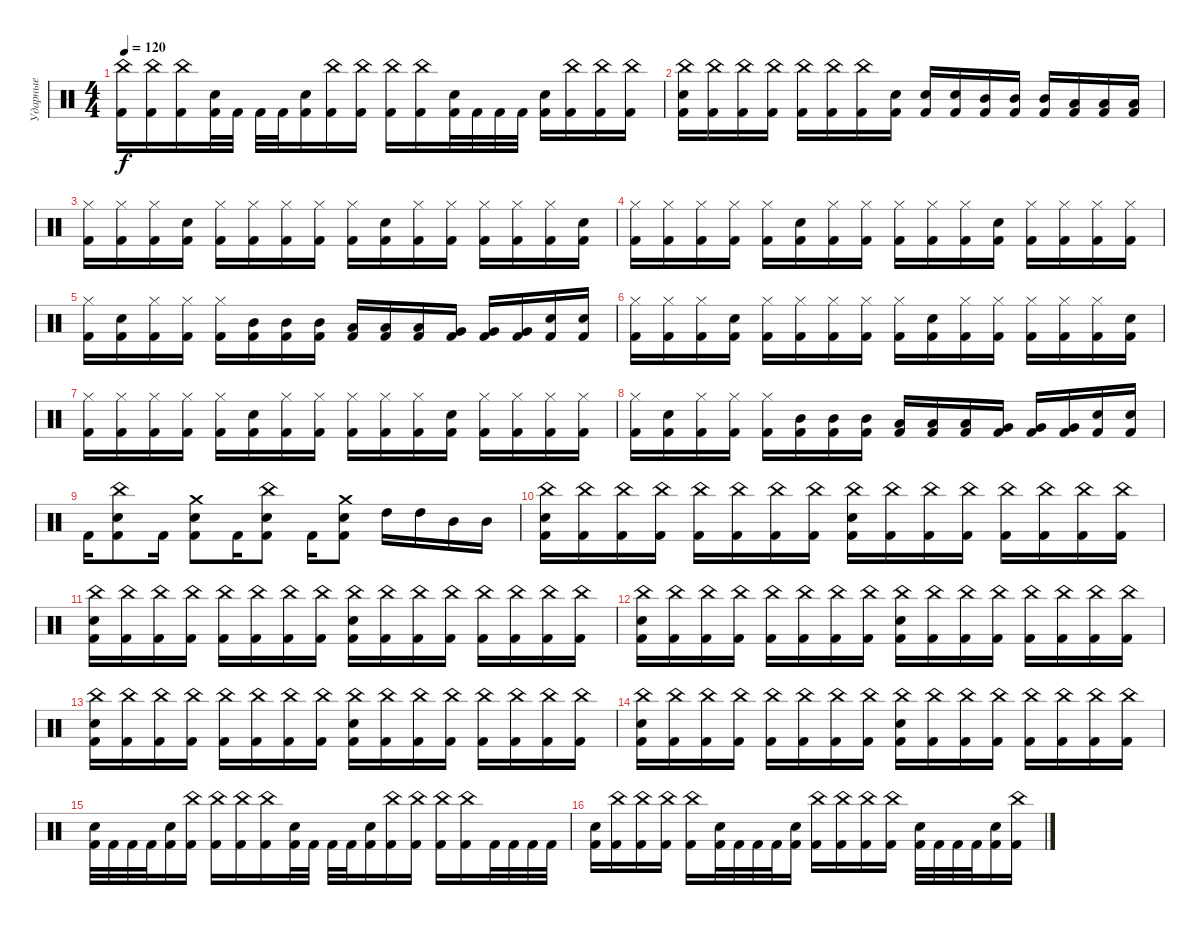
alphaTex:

\track ("Ударные" "Ударные") {instrument percussion}
\staff {score}
\articulation defaults
\ts (4 4)
\tempo 120
\clef neutral
\ks c
("China (hit)" "Kick (hit) 2").16{dy f} ("China (hit)" "Kick (hit) 2").16 ("China (hit)" "Kick (hit) 2").16 ("Snare (hit) 2" "Kick (hit) 2").32 "Kick (hit) 2".32 "Kick (hit) 2".32 "Kick (hit) 2".32 ("Snare (hit) 2" "Kick (hit) 2").16 ("China (hit)" "Kick (hit) 2").16 ("China (hit)" "Kick (hit) 2").16 ("China (hit)" "Kick (hit) 2").16 ("China (hit)" "Kick (hit) 2").16 ("Snare (hit) 2" "Kick (hit) 2").32 "Kick (hit) 2".32 "Kick (hit) 2".32 "Kick (hit) 2".32 ("Snare (hit) 2" "Kick (hit) 2").16 ("China (hit)" "Kick (hit) 2").16 ("China (hit)" "Kick (hit) 2").16 ("China (hit)" "Kick (hit) 2").16 |
("China (hit)" "Snare (hit) 2" "Kick (hit) 2").16 ("China (hit)" "Kick (hit) 2").16 ("China (hit)" "Kick (hit) 2").16 ("China (hit)" "Kick (hit) 2").16 ("China (hit)" "Kick (hit) 2").16 ("China (hit)" "Kick (hit) 2").16 ("China (hit)" "Kick (hit) 2").16 ("Snare (hit) 2" "Kick (hit) 2").16 ("Snare (hit) 2" "Kick (hit) 2").16 ("Snare (hit) 2" "Kick (hit) 2").16 ("Mid Tom (hit)" "Kick (hit) 2").16 ("Mid Tom (hit)" "Kick (hit) 2").16 ("Mid Tom (hit)" "Kick (hit) 2").16 ("Low Tom (hit)" "Kick (hit) 2").16 ("Low Tom (hit)" "Kick (hit) 2").16 ("Low Tom (hit)" "Kick (hit) 2").16 |
("Hi-Hat (closed)" "Kick (hit) 2").16 ("Hi-Hat (closed)" "Kick (hit) 2").16 ("Hi-Hat (closed)" "Kick (hit) 2").16 ("Snare (hit) 2" "Kick (hit) 2").16 ("Hi-Hat (closed)" "Kick (hit) 2").16 ("Hi-Hat (closed)" "Kick (hit) 2").16 ("Hi-Hat (closed)" "Kick (hit) 2").16 ("Hi-Hat (closed)" "Kick (hit) 2").16 ("Hi-Hat (closed)" "Kick (hit) 2").16 ("Snare (hit) 2" "Kick (hit) 2").16 ("Hi-Hat (closed)" "Kick (hit) 2").16 ("Hi-Hat (closed)" "Kick (hit) 2").16 ("Hi-Hat (closed)" "Kick (hit) 2").16 ("Hi-Hat (closed)" "Kick (hit) 2").16 ("Hi-Hat (closed)" "Kick (hit) 2").16 ("Snare (hit) 2" "Kick (hit) 2").16 |
("Hi-Hat (closed)" "Kick (hit) 2").16 ("Hi-Hat (closed)" "Kick (hit) 2").16 ("Hi-Hat (closed)" "Kick (hit) 2").16 ("Hi-Hat (closed)" "Kick (hit) 2").16 ("Hi-Hat (closed)" "Kick (hit) 2").16 ("Snare (hit) 2" "Kick (hit) 2").16 ("Hi-Hat (closed)" "Kick (hit) 2").16 ("Hi-Hat (closed)" "Kick (hit) 2").16 ("Hi-Hat (closed)" "Kick (hit) 2").16 ("Hi-Hat (closed)" "Kick (hit) 2").16 ("Hi-Hat (closed)" "Kick (hit) 2").16 ("Snare (hit) 2" "Kick (hit) 2").16 ("Hi-Hat (closed)" "Kick (hit) 2").16 ("Hi-Hat (closed)" "Kick (hit) 2").16 ("Hi-Hat (closed)" "Kick (hit) 2").16 ("Hi-Hat (closed)" "Kick (hit) 2").16 |
("Hi-Hat (closed)" "Kick (hit) 2").16 ("Snare (hit) 2" "Kick (hit) 2").16 ("Hi-Hat (closed)" "Kick (hit) 2").16 ("Hi-Hat (closed)" "Kick (hit) 2").16 ("Hi-Hat (closed)" "Kick (hit) 2").16 ("Mid Tom (hit)" "Kick (hit) 2").16 ("Mid Tom (hit)" "Kick (hit) 2").16 ("Mid Tom (hit)" "Kick (hit) 2").16 ("Low Tom (hit)" "Kick (hit) 2").16 ("Low Tom (hit)" "Kick (hit) 2").16 ("Low Tom (hit)" "Kick (hit) 2").16 ("Very Low Tom (hit)" "Kick (hit) 2").16 ("Very Low Tom (hit)" "Kick (hit) 2").16 ("Very Low Tom (hit)" "Kick (hit) 2").16 ("Snare (hit) 2" "Kick (hit) 2").16 ("Snare (hit) 2" "Kick (hit) 2").16 |
("Hi-Hat (closed)" "Kick (hit) 2").16 ("Hi-Hat (closed)" "Kick (hit) 2").16 ("Hi-Hat (closed)" "Kick (hit) 2").16 ("Snare (hit) 2" "Kick (hit) 2").16 ("Hi-Hat (closed)" "Kick (hit) 2").16 ("Hi-Hat (closed)" "Kick (hit) 2").16 ("Hi-Hat (closed)" "Kick (hit) 2").16 ("Hi-Hat (closed)" "Kick (hit) 2").16 ("Hi-Hat (closed)" "Kick (hit) 2").16 ("Snare (hit) 2" "Kick (hit) 2").16 ("Hi-Hat (closed)" "Kick (hit) 2").16 ("Hi-Hat (closed)" "Kick (hit) 2").16 ("Hi-Hat (closed)" "Kick (hit) 2").16 ("Hi-Hat (closed)" "Kick (hit) 2").16 ("Hi-Hat (closed)" "Kick (hit) 2").16 ("Snare (hit) 2" "Kick (hit) 2").16 |
("Hi-Hat (closed)" "Kick (hit) 2").16 ("Hi-Hat (closed)" "Kick (hit) 2").16 ("Hi-Hat (closed)" "Kick (hit) 2").16 ("Hi-Hat (closed)" "Kick (hit) 2").16 ("Hi-Hat (closed)" "Kick (hit) 2").16 ("Snare (hit) 2" "Kick (hit) 2").16 ("Hi-Hat (closed)" "Kick (hit) 2").16 ("Hi-Hat (closed)" "Kick (hit) 2").16 ("Hi-Hat (closed)" "Kick (hit) 2").16 ("Hi-Hat (closed)" "Kick (hit) 2").16 ("Hi-Hat (closed)" "Kick (hit) 2").16 ("Snare (hit) 2" "Kick (hit) 2").16 ("Hi-Hat (closed)" "Kick (hit) 2").16 ("Hi-Hat (closed)" "Kick (hit) 2").16 ("Hi-Hat (closed)" "Kick (hit) 2").16 ("Hi-Hat (closed)" "Kick (hit) 2").16 |
("Hi-Hat (closed)" "Kick (hit) 2").16 ("Snare (hit) 2" "Kick (hit) 2").16 ("Hi-Hat (closed)" "Kick (hit) 2").16 ("Hi-Hat (closed)" "Kick (hit) 2").16 ("Hi-Hat (closed)" "Kick (hit) 2").16 ("Mid Tom (hit)" "Kick (hit) 2").16 ("Mid Tom (hit)" "Kick (hit) 2").16 ("Mid Tom (hit)" "Kick (hit) 2").16 ("Low Tom (hit)" "Kick (hit) 2").16 ("Low Tom (hit)" "Kick (hit) 2").16 ("Low Tom (hit)" "Kick (hit) 2").16 ("Very Low Tom (hit)" "Kick (hit) 2").16 ("Very Low Tom (hit)" "Kick (hit) 2").16 ("Very Low Tom (hit)" "Kick (hit) 2").16 ("Snare (hit) 2" "Kick (hit) 2").16 ("Snare (hit) 2" "Kick (hit) 2").16 |
"Kick (hit) 2".16 ("Snare (hit) 2" "China (hit)" "Kick (hit) 2").8 "Kick (hit) 2".16 ("Snare (hit) 2" "Crash medium (hit)" "Kick (hit) 2").8 "Kick (hit) 2".16 ("Snare (hit) 2" "China (hit)" "Kick (hit) 2").8 "Kick (hit) 2".16 ("Snare (hit) 2" "Crash medium (hit)" "Kick (hit) 2").8 "High Tom (hit)".16 "High Tom (hit)".16 "Mid Tom (hit)".16 "Mid Tom (hit)".16 |
("China (hit)" "Snare (hit) 2" "Kick (hit) 2").16 ("China (hit)" "Kick (hit) 2").16 ("China (hit)" "Kick (hit) 2").16 ("China (hit)" "Kick (hit) 2").16 ("China (hit)" "Kick (hit) 2").16 ("China (hit)" "Kick (hit) 2").16 ("China (hit)" "Kick (hit) 2").16 ("China (hit)" "Kick (hit) 2").16 ("China (hit)" "Snare (hit) 2" "Kick (hit) 2").16 ("China (hit)" "Kick (hit) 2").16 ("China (hit)" "Kick (hit) 2").16 ("China (hit)" "Kick (hit) 2").16 ("China (hit)" "Kick (hit) 2").16 ("China (hit)" "Kick (hit) 2").16 ("China (hit)" "Kick (hit) 2").16 ("China (hit)" "Kick (hit) 2").16 |
("China (hit)" "Snare (hit) 2" "Kick (hit) 2").16 ("China (hit)" "Kick (hit) 2").16 ("China (hit)" "Kick (hit) 2").16 ("China (hit)" "Kick (hit) 2").16 ("China (hit)" "Kick (hit) 2").16 ("China (hit)" "Kick (hit) 2").16 ("China (hit)" "Kick (hit) 2").16 ("China (hit)" "Kick (hit) 2").16 ("China (hit)" "Snare (hit) 2" "Kick (hit) 2").16 ("China (hit)" "Kick (hit) 2").16 ("China (hit)" "Kick (hit) 2").16 ("China (hit)" "Kick (hit) 2").16 ("China (hit)" "Kick (hit) 2").16 ("China (hit)" "Kick (hit) 2").16 ("China (hit)" "Kick (hit) 2").16 ("China (hit)" "Kick (hit) 2").16 |
("China (hit)" "Snare (hit) 2" "Kick (hit) 2").16 ("China (hit)" "Kick (hit) 2").16 ("China (hit)" "Kick (hit) 2").16 ("China (hit)" "Kick (hit) 2").16 ("China (hit)" "Kick (hit) 2").16 ("China (hit)" "Kick (hit) 2").16 ("China (hit)" "Kick (hit) 2").16 ("China (hit)" "Kick (hit) 2").16 ("China (hit)" "Snare (hit) 2" "Kick (hit) 2").16 ("China (hit)" "Kick (hit) 2").16 ("China (hit)" "Kick (hit) 2").16 ("China (hit)" "Kick (hit) 2").16 ("China (hit)" "Kick (hit) 2").16 ("China (hit)" "Kick (hit) 2").16 ("China (hit)" "Kick (hit) 2").16 ("China (hit)" "Kick (hit) 2").16 |
("China (hit)" "Snare (hit) 2" "Kick (hit) 2").16 ("China (hit)" "Kick (hit) 2").16 ("China (hit)" "Kick (hit) 2").16 ("China (hit)" "Kick (hit) 2").16 ("China (hit)" "Kick (hit) 2").16 ("China (hit)" "Kick (hit) 2").16 ("China (hit)" "Kick (hit) 2").16 ("China (hit)" "Kick (hit) 2").16 ("China (hit)" "Snare (hit) 2" "Kick (hit) 2").16 ("China (hit)" "Kick (hit) 2").16 ("China (hit)" "Kick (hit) 2").16 ("China (hit)" "Kick (hit) 2").16 ("China (hit)" "Kick (hit) 2").16 ("China (hit)" "Kick (hit) 2").16 ("China (hit)" "Kick (hit) 2").16 ("China (hit)" "Kick (hit) 2").16 |
("China (hit)" "Snare (hit) 2" "Kick (hit) 2").16 ("China (hit)" "Kick (hit) 2").16 ("China (hit)" "Kick (hit) 2").16 ("China (hit)" "Kick (hit) 2").16 ("China (hit)" "Kick (hit) 2").16 ("China (hit)" "Kick (hit) 2").16 ("China (hit)" "Kick (hit) 2").16 ("China (hit)" "Kick (hit) 2").16 ("China (hit)" "Snare (hit) 2" "Kick (hit) 2").16 ("China (hit)" "Kick (hit) 2").16 ("China (hit)" "Kick (hit) 2").16 ("China (hit)" "Kick (hit) 2").16 ("China (hit)" "Kick (hit) 2").16 ("China (hit)" "Kick (hit) 2").16 ("China (hit)" "Kick (hit) 2").16 ("China (hit)" "Kick (hit) 2").16 |
("Snare (hit) 2" "Kick (hit) 2").32 "Kick (hit) 2".32 "Kick (hit) 2".32 "Kick (hit) 2".32 ("Snare (hit) 2" "Kick (hit) 2").16 ("China (hit)" "Kick (hit) 2").16 ("China (hit)" "Kick (hit) 2").16 ("China (hit)" "Kick (hit) 2").16 ("China (hit)" "Kick (hit) 2").16 ("Snare (hit) 2" "Kick (hit) 2").32 "Kick (hit) 2".32 "Kick (hit) 2".32 "Kick (hit) 2".32 ("Snare (hit) 2" "Kick (hit) 2").16 ("China (hit)" "Kick (hit) 2").16 ("China (hit)" "Kick (hit) 2").16 ("China (hit)" "Kick (hit) 2").16 ("China (hit)" "Kick (hit) 2").16 "Kick (hit) 2".32 "Kick (hit) 2".32 "Kick (hit) 2".32 "Kick (hit) 2".32 |
("Snare (hit) 2" "Kick (hit) 2").16 ("China (hit)" "Kick (hit) 2").16 ("China (hit)" "Kick (hit) 2").16 ("China (hit)" "Kick (hit) 2").16 ("China (hit)" "Kick (hit) 2").16 ("Snare (hit) 2" "Kick (hit) 2").32 "Kick (hit) 2".32 "Kick (hit) 2".32 "Kick (hit) 2".32 ("Snare (hit) 2" "Kick (hit) 2").16 ("China (hit)" "Kick (hit) 2").16 ("China (hit)" "Kick (hit) 2").16 ("China (hit)" "Kick (hit) 2").16 ("China (hit)" "Kick (hit) 2").16 ("Snare (hit) 2" "Kick (hit) 2").32 "Kick (hit) 2".32 "Kick (hit) 2".32 "Kick (hit) 2".32 ("Snare (hit) 2" "Kick (hit) 2").16 ("China (hit)" "Kick (hit) 2").16
